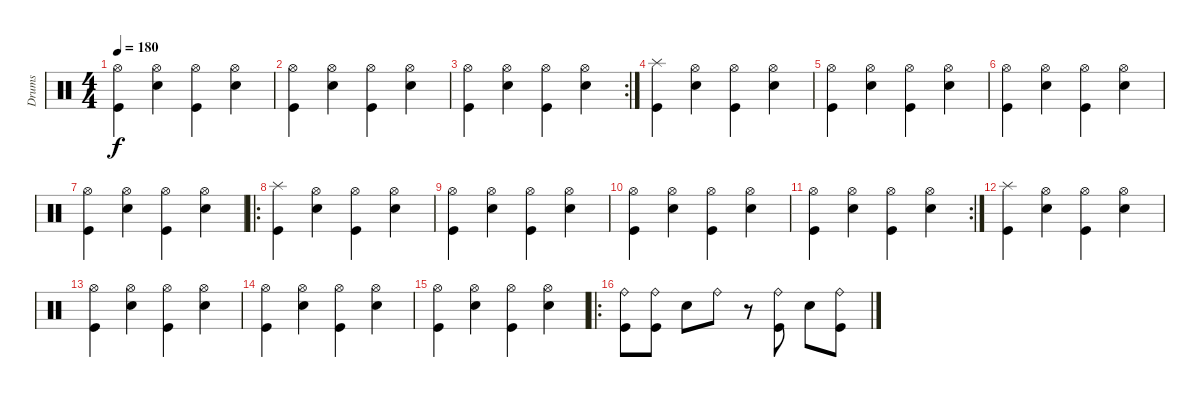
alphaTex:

\track ("Drums" "Drums") {instrument percussion}
\staff {score}
\articulation defaults
\ts (4 4)
\tempo 180
\clef neutral
\ks c
("Kick (hit)" "Hi-Hat (open)").4{dy f} ("Electric Snare (hit)" "Hi-Hat (open)").4 ("Kick (hit)" "Hi-Hat (open)").4 ("Electric Snare (hit)" "Hi-Hat (open)").4 |
("Kick (hit)" "Hi-Hat (open)").4 ("Electric Snare (hit)" "Hi-Hat (open)").4 ("Kick (hit)" "Hi-Hat (open)").4 ("Electric Snare (hit)" "Hi-Hat (open)").4 |
\rc 2
("Kick (hit)" "Hi-Hat (open)").4 ("Electric Snare (hit)" "Hi-Hat (open)").4 ("Kick (hit)" "Hi-Hat (open)").4 ("Electric Snare (hit)" "Hi-Hat (open)").4 |
("Kick (hit)" "Splash (hit)").4 ("Electric Snare (hit)" "Hi-Hat (open)").4 ("Kick (hit)" "Hi-Hat (open)").4 ("Electric Snare (hit)" "Hi-Hat (open)").4 |
("Kick (hit)" "Hi-Hat (open)").4 ("Electric Snare (hit)" "Hi-Hat (open)").4 ("Kick (hit)" "Hi-Hat (open)").4 ("Electric Snare (hit)" "Hi-Hat (open)").4 |
("Kick (hit)" "Hi-Hat (open)").4 ("Electric Snare (hit)" "Hi-Hat (open)").4 ("Kick (hit)" "Hi-Hat (open)").4 ("Electric Snare (hit)" "Hi-Hat (open)").4 |
("Kick (hit)" "Hi-Hat (open)").4 ("Electric Snare (hit)" "Hi-Hat (open)").4 ("Kick (hit)" "Hi-Hat (open)").4 ("Electric Snare (hit)" "Hi-Hat (open)").4 |
\ro
("Kick (hit)" "Splash (hit)").4 ("Electric Snare (hit)" "Hi-Hat (open)").4 ("Kick (hit)" "Hi-Hat (open)").4 ("Electric Snare (hit)" "Hi-Hat (open)").4 |
("Kick (hit)" "Hi-Hat (open)").4 ("Electric Snare (hit)" "Hi-Hat (open)").4 ("Kick (hit)" "Hi-Hat (open)").4 ("Electric Snare (hit)" "Hi-Hat (open)").4 |
("Kick (hit)" "Hi-Hat (open)").4 ("Electric Snare (hit)" "Hi-Hat (open)").4 ("Kick (hit)" "Hi-Hat (open)").4 ("Electric Snare (hit)" "Hi-Hat (open)").4 |
\rc 2
("Kick (hit)" "Hi-Hat (open)").4 ("Electric Snare (hit)" "Hi-Hat (open)").4 ("Kick (hit)" "Hi-Hat (open)").4 ("Electric Snare (hit)" "Hi-Hat (open)").4 |
("Kick (hit)" "Splash (hit)").4 ("Electric Snare (hit)" "Hi-Hat (open)").4 ("Kick (hit)" "Hi-Hat (open)").4 ("Electric Snare (hit)" "Hi-Hat (open)").4 |
("Kick (hit)" "Hi-Hat (open)").4 ("Electric Snare (hit)" "Hi-Hat (open)").4 ("Kick (hit)" "Hi-Hat (open)").4 ("Electric Snare (hit)" "Hi-Hat (open)").4 |
("Kick (hit)" "Hi-Hat (open)").4 ("Electric Snare (hit)" "Hi-Hat (open)").4 ("Kick (hit)" "Hi-Hat (open)").4 ("Electric Snare (hit)" "Hi-Hat (open)").4 |
("Kick (hit)" "Hi-Hat (open)").4 ("Electric Snare (hit)" "Hi-Hat (open)").4 ("Kick (hit)" "Hi-Hat (open)").4 ("Electric Snare (hit)" "Hi-Hat (open)").4 |
\ro
("Kick (hit)" "Ride (bell)").8 ("Kick (hit)" "Ride (bell)").8 "Electric Snare (hit)".8 "Ride (bell)".8 r.8 ("Kick (hit)" "Ride (bell)").8 "Electric Snare (hit)".8 ("Kick (hit)" "Ride (bell)").8
